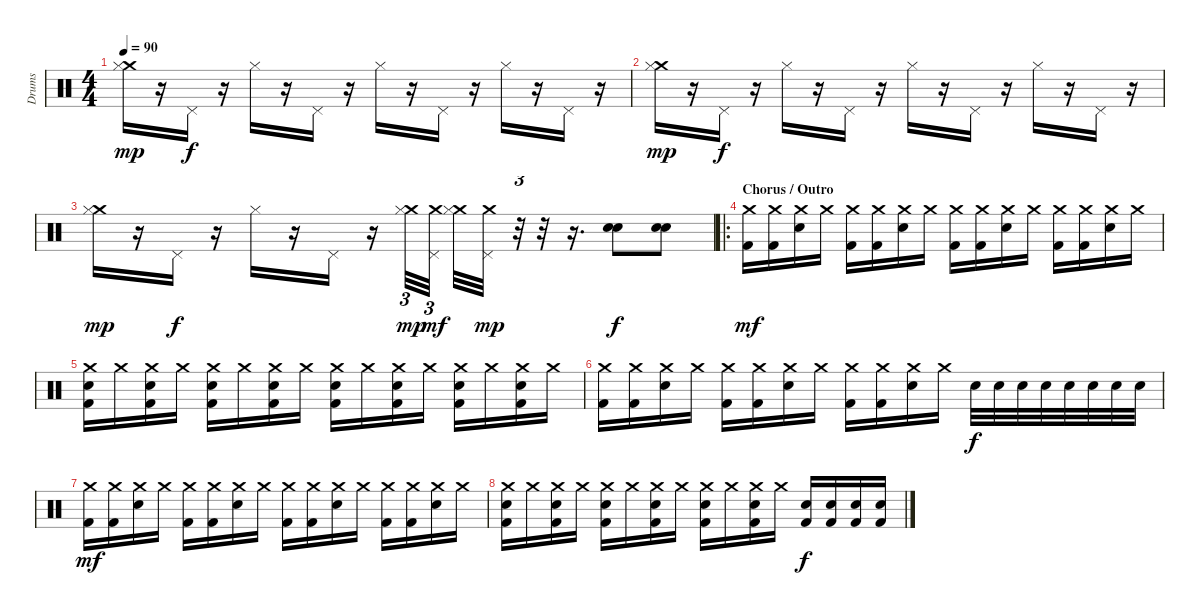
\track ("Drums" "Drums") {instrument percussion}
\staff {score}
\articulation defaults
\ts (4 4)
\tempo 90
\clef neutral
\ks c
("Crash medium (hit)" "Hi-Hat (closed)").16{dy mp} r.16 "Pedal Hi-Hat (hit)".16{dy f} r.16 "Hi-Hat (closed)".16 r.16 "Pedal Hi-Hat (hit)".16 r.16 "Hi-Hat (closed)".16 r.16 "Pedal Hi-Hat (hit)".16 r.16 "Hi-Hat (closed)".16 r.16 "Pedal Hi-Hat (hit)".16 r.16 |
("Crash medium (hit)" "Hi-Hat (closed)").16{dy mp} r.16 "Pedal Hi-Hat (hit)".16{dy f} r.16 "Hi-Hat (closed)".16 r.16 "Pedal Hi-Hat (hit)".16 r.16 "Hi-Hat (closed)".16 r.16 "Pedal Hi-Hat (hit)".16 r.16 "Hi-Hat (closed)".16 r.16 "Pedal Hi-Hat (hit)".16 r.16 |
("Crash medium (hit)" "Hi-Hat (closed)").16{dy mp} r.16 "Pedal Hi-Hat (hit)".16{dy f} r.16 "Hi-Hat (closed)".16 r.16 "Pedal Hi-Hat (hit)".16 r.16 ("Crash medium (hit)" "Hi-Hat (closed)").32{tu (3 2) dy mp volume 16 balance 16} ("Crash medium (hit)" "Pedal Hi-Hat (hit)").32{tu (3 2) dy mf} ("Crash medium (hit)" "Hi-Hat (closed)").32 ("Crash medium (hit)" "Pedal Hi-Hat (hit)").32{dy mp} r.32{tu (3 2)} r.32 r.16{d} ("Snare (hit) 2" "Snare (hit) 2").8{dy f volume 12 balance 8} ("Snare (hit) 2" "Snare (hit) 2").8 |
\ro
\section ("" "Chorus / Outro")
("Crash medium (hit)" "Kick (hit) 2").16{dy mf} ("Crash medium (hit)" "Kick (hit) 2").16 ("Crash medium (hit)" "Snare (hit) 2").16 "Crash medium (hit)".16 ("Crash medium (hit)" "Kick (hit) 2").16 ("Crash medium (hit)" "Kick (hit) 2").16 ("Crash medium (hit)" "Snare (hit) 2").16 "Crash medium (hit)".16 ("Crash medium (hit)" "Kick (hit) 2").16 ("Crash medium (hit)" "Kick (hit) 2").16 ("Crash medium (hit)" "Snare (hit) 2").16 "Crash medium (hit)".16 ("Crash medium (hit)" "Kick (hit) 2").16 ("Crash medium (hit)" "Kick (hit) 2").16 ("Crash medium (hit)" "Snare (hit) 2").16 "Crash medium (hit)".16 |
("Crash medium (hit)" "Snare (hit) 2" "Kick (hit) 2").16 "Crash medium (hit)".16 ("Crash medium (hit)" "Snare (hit) 2" "Kick (hit) 2").16 "Crash medium (hit)".16 ("Crash medium (hit)" "Snare (hit) 2" "Kick (hit) 2").16 "Crash medium (hit)".16 ("Crash medium (hit)" "Snare (hit) 2" "Kick (hit) 2").16 "Crash medium (hit)".16 ("Crash medium (hit)" "Snare (hit) 2" "Kick (hit) 2").16 "Crash medium (hit)".16 ("Crash medium (hit)" "Snare (hit) 2" "Kick (hit) 2").16 "Crash medium (hit)".16 ("Crash medium (hit)" "Snare (hit) 2" "Kick (hit) 2").16 "Crash medium (hit)".16 ("Crash medium (hit)" "Snare (hit) 2" "Kick (hit) 2").16 "Crash medium (hit)".16 |
("Crash medium (hit)" "Kick (hit) 2").16 ("Crash medium (hit)" "Kick (hit) 2").16 ("Crash medium (hit)" "Snare (hit) 2").16 "Crash medium (hit)".16 ("Crash medium (hit)" "Kick (hit) 2").16 ("Crash medium (hit)" "Kick (hit) 2").16 ("Crash medium (hit)" "Snare (hit) 2").16 "Crash medium (hit)".16 ("Crash medium (hit)" "Kick (hit) 2").16 ("Crash medium (hit)" "Kick (hit) 2").16 ("Crash medium (hit)" "Snare (hit) 2").16 "Crash medium (hit)".16 "Snare (hit) 2".32{dy f} "Snare (hit) 2".32 "Snare (hit) 2".32 "Snare (hit) 2".32 "Snare (hit) 2".32 "Snare (hit) 2".32 "Snare (hit) 2".32 "Snare (hit) 2".32 |
("Crash medium (hit)" "Kick (hit) 2").16{dy mf} ("Crash medium (hit)" "Kick (hit) 2").16 ("Crash medium (hit)" "Snare (hit) 2").16 "Crash medium (hit)".16 ("Crash medium (hit)" "Kick (hit) 2").16 ("Crash medium (hit)" "Kick (hit) 2").16 ("Crash medium (hit)" "Snare (hit) 2").16 "Crash medium (hit)".16 ("Crash medium (hit)" "Kick (hit) 2").16 ("Crash medium (hit)" "Kick (hit) 2").16 ("Crash medium (hit)" "Snare (hit) 2").16 "Crash medium (hit)".16 ("Crash medium (hit)" "Kick (hit) 2").16 ("Crash medium (hit)" "Kick (hit) 2").16 ("Crash medium (hit)" "Snare (hit) 2").16 "Crash medium (hit)".16 |
("Crash medium (hit)" "Snare (hit) 2" "Kick (hit) 2").16 "Crash medium (hit)".16 ("Crash medium (hit)" "Snare (hit) 2" "Kick (hit) 2").16 "Crash medium (hit)".16 ("Crash medium (hit)" "Snare (hit) 2" "Kick (hit) 2").16 "Crash medium (hit)".16 ("Crash medium (hit)" "Snare (hit) 2" "Kick (hit) 2").16 "Crash medium (hit)".16 ("Crash medium (hit)" "Snare (hit) 2" "Kick (hit) 2").16 "Crash medium (hit)".16 ("Crash medium (hit)" "Snare (hit) 2" "Kick (hit) 2").16 "Crash medium (hit)".16 ("Snare (hit) 2" "Kick (hit) 2").16{dy f} ("Snare (hit) 2" "Kick (hit) 2").16 ("Snare (hit) 2" "Kick (hit) 2").16 ("Snare (hit) 2" "Kick (hit) 2").16
